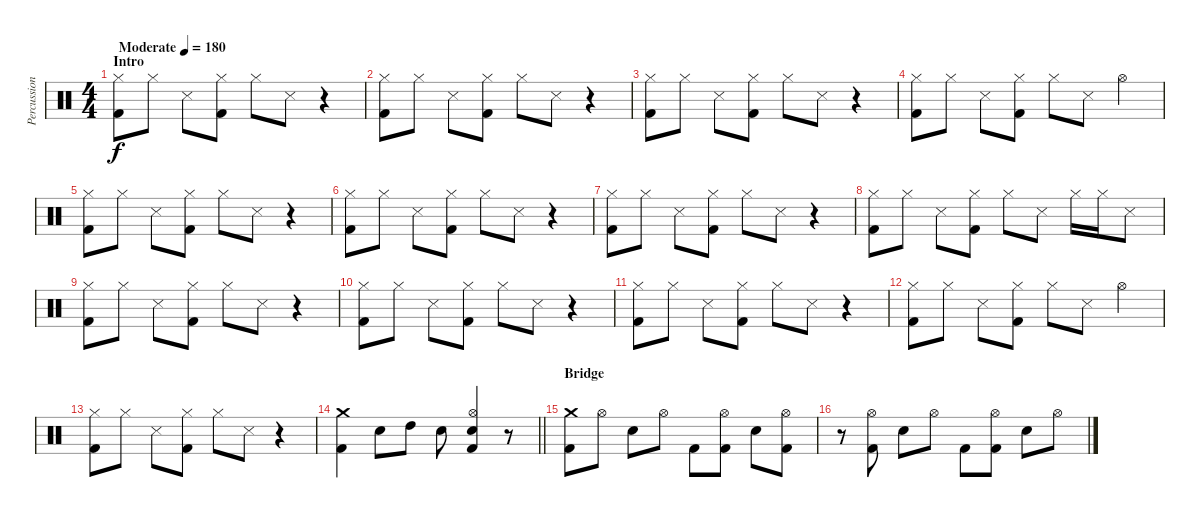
\track ("Percussion" "Percussion") {instrument percussion}
\staff {score}
\articulation defaults
\ts (4 4)
\section ("" "Intro")
\tempo (180 "Moderate")
\clef neutral
\ks c
("Hi-Hat (closed)" "Kick (hit) 2").8{dy f} "Hi-Hat (closed)".8 "Snare (side stick) 3".8 ("Hi-Hat (closed)" "Kick (hit) 2").8 "Hi-Hat (closed)".8 "Snare (side stick) 3".8 r.4 |
("Hi-Hat (closed)" "Kick (hit) 2").8 "Hi-Hat (closed)".8 "Snare (side stick) 3".8 ("Hi-Hat (closed)" "Kick (hit) 2").8 "Hi-Hat (closed)".8 "Snare (side stick) 3".8 r.4 |
("Hi-Hat (closed)" "Kick (hit) 2").8 "Hi-Hat (closed)".8 "Snare (side stick) 3".8 ("Hi-Hat (closed)" "Kick (hit) 2").8 "Hi-Hat (closed)".8 "Snare (side stick) 3".8 r.4 |
("Hi-Hat (closed)" "Kick (hit) 2").8 "Hi-Hat (closed)".8 "Snare (side stick) 3".8 ("Hi-Hat (closed)" "Kick (hit) 2").8 "Hi-Hat (closed)".8 "Snare (side stick) 3".8 "Hi-Hat (open)".4 |
("Hi-Hat (closed)" "Kick (hit) 2").8 "Hi-Hat (closed)".8 "Snare (side stick) 3".8 ("Hi-Hat (closed)" "Kick (hit) 2").8 "Hi-Hat (closed)".8 "Snare (side stick) 3".8 r.4 |
("Hi-Hat (closed)" "Kick (hit) 2").8 "Hi-Hat (closed)".8 "Snare (side stick) 3".8 ("Hi-Hat (closed)" "Kick (hit) 2").8 "Hi-Hat (closed)".8 "Snare (side stick) 3".8 r.4 |
("Hi-Hat (closed)" "Kick (hit) 2").8 "Hi-Hat (closed)".8 "Snare (side stick) 3".8 ("Hi-Hat (closed)" "Kick (hit) 2").8 "Hi-Hat (closed)".8 "Snare (side stick) 3".8 r.4 |
("Hi-Hat (closed)" "Kick (hit) 2").8 "Hi-Hat (closed)".8 "Snare (side stick) 3".8 ("Hi-Hat (closed)" "Kick (hit) 2").8 "Hi-Hat (closed)".8 "Snare (side stick) 3".8 "Hi-Hat (closed)".16 "Hi-Hat (closed)".16 "Snare (side stick) 3".8 |
("Hi-Hat (closed)" "Kick (hit) 2").8 "Hi-Hat (closed)".8 "Snare (side stick) 3".8 ("Hi-Hat (closed)" "Kick (hit) 2").8 "Hi-Hat (closed)".8 "Snare (side stick) 3".8 r.4 |
("Hi-Hat (closed)" "Kick (hit) 2").8 "Hi-Hat (closed)".8 "Snare (side stick) 3".8 ("Hi-Hat (closed)" "Kick (hit) 2").8 "Hi-Hat (closed)".8 "Snare (side stick) 3".8 r.4 |
("Hi-Hat (closed)" "Kick (hit) 2").8 "Hi-Hat (closed)".8 "Snare (side stick) 3".8 ("Hi-Hat (closed)" "Kick (hit) 2").8 "Hi-Hat (closed)".8 "Snare (side stick) 3".8 r.4 |
("Hi-Hat (closed)" "Kick (hit) 2").8 "Hi-Hat (closed)".8 "Snare (side stick) 3".8 ("Hi-Hat (closed)" "Kick (hit) 2").8 "Hi-Hat (closed)".8 "Snare (side stick) 3".8 "Hi-Hat (open)".4 |
("Hi-Hat (closed)" "Kick (hit) 2").8 "Hi-Hat (closed)".8 "Snare (side stick) 3".8 ("Hi-Hat (closed)" "Kick (hit) 2").8 "Hi-Hat (closed)".8 "Snare (side stick) 3".8 r.4 |
\barLineRight lightlight
("Crash medium (hit)" "Kick (hit) 2").4 "Snare (hit) 2".8 "High Tom (hit)".8 "Snare (hit) 2".8 ("Hi-Hat (open)" "Snare (hit) 2" "Kick (hit) 2").4 r.8 |
\section ("" "Bridge")
("Crash medium (hit)" "Kick (hit) 2").8 "Hi-Hat (open)".8 "Snare (hit) 2".8 "Hi-Hat (open)".8 "Kick (hit) 2".8 ("Hi-Hat (open)" "Kick (hit) 2").8 "Snare (hit) 2".8 ("Hi-Hat (open)" "Kick (hit) 2").8 |
r.8 ("Hi-Hat (open)" "Kick (hit) 2").8 "Snare (hit) 2".8 "Hi-Hat (open)".8 "Kick (hit) 2".8 ("Hi-Hat (open)" "Kick (hit) 2").8 "Snare (hit) 2".8 "Hi-Hat (open)".8
